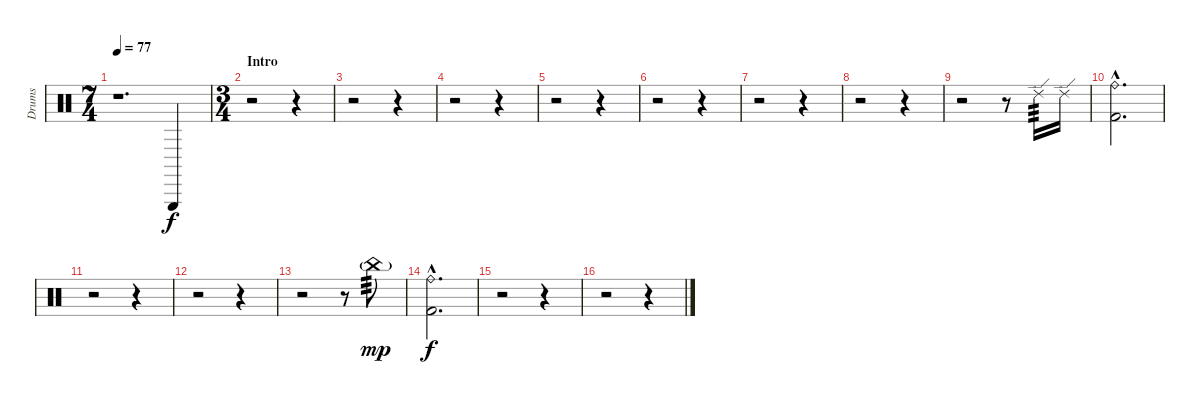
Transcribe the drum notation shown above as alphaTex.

\track ("Drums" "Drums") {instrument percussion}
\staff {score}
\articulation defaults
\ts (7 4)
\tempo 77
\clef neutral
\ks c
r.1{d dy f} "Triangle (hit)".4 |
\ts (3 4)
\section ("" "Intro")
r.2 r.4 |
r.2 r.4 |
r.2 r.4 |
r.2 r.4 |
r.2 r.4 |
r.2 r.4 |
r.2 r.4 |
r.2 r.8 "Ride (edge) 2".16{tp 3} "Ride (edge) 2".16 |
("Ride (bell)"{hac} "Kick (hit) 2"{hac}).2{d} |
r.2 r.4 |
r.2 r.4 |
r.2 r.8 "China (hit)"{g}.8{tp 3 dy mp} |
("Ride (bell)"{hac} "Kick (hit) 2"{hac}).2{d dy f} |
r.2 r.4 |
r.2 r.4
